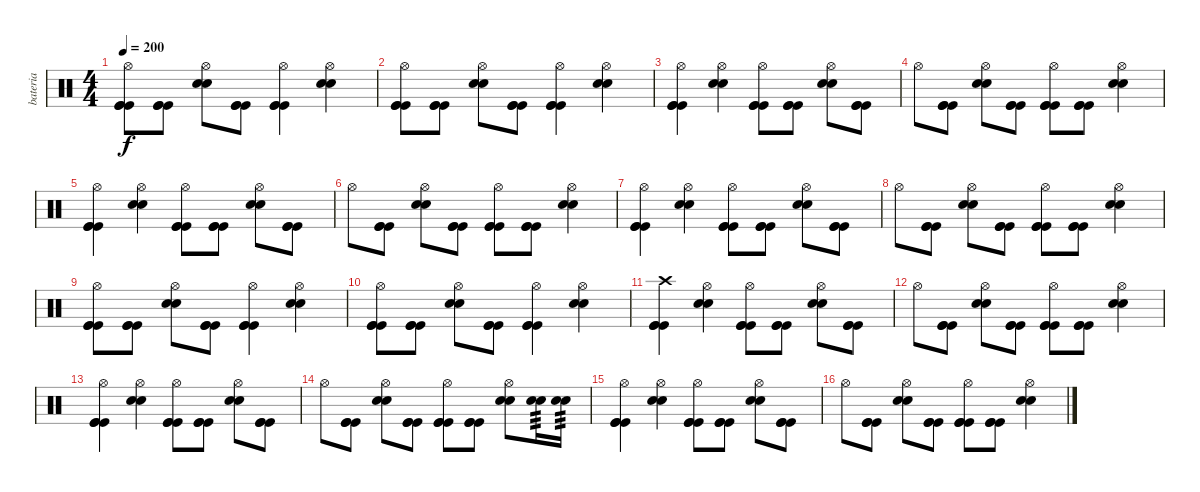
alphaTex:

\track ("bateria" "bateria") {instrument percussion}
\staff {score}
\articulation defaults
\ts (4 4)
\tempo 200
\clef neutral
\ks c
("Hi-Hat (open)" "Kick (hit)" "Kick (hit)" "Kick (hit)").8{dy f} ("Kick (hit)" "Kick (hit)" "Kick (hit)").8 ("Hi-Hat (open)" "Electric Snare (hit)" "Electric Snare (hit)").8 ("Kick (hit)" "Kick (hit)" "Kick (hit)").8 ("Hi-Hat (open)" "Kick (hit)" "Kick (hit)" "Kick (hit)").4 ("Hi-Hat (open)" "Electric Snare (hit)" "Electric Snare (hit)").4 |
("Hi-Hat (open)" "Kick (hit)" "Kick (hit)" "Kick (hit)").8 ("Kick (hit)" "Kick (hit)" "Kick (hit)").8 ("Hi-Hat (open)" "Electric Snare (hit)" "Electric Snare (hit)").8 ("Kick (hit)" "Kick (hit)" "Kick (hit)").8 ("Hi-Hat (open)" "Kick (hit)" "Kick (hit)" "Kick (hit)").4 ("Hi-Hat (open)" "Electric Snare (hit)" "Electric Snare (hit)").4 |
("Hi-Hat (open)" "Kick (hit)" "Kick (hit)" "Kick (hit)").4 ("Hi-Hat (open)" "Electric Snare (hit)" "Electric Snare (hit)").4 ("Hi-Hat (open)" "Kick (hit)" "Kick (hit)" "Kick (hit)").8 ("Kick (hit)" "Kick (hit)" "Kick (hit)").8 ("Hi-Hat (open)" "Electric Snare (hit)" "Electric Snare (hit)").8 ("Kick (hit)" "Kick (hit)" "Kick (hit)").8 |
"Hi-Hat (open)".8 ("Kick (hit)" "Kick (hit)" "Kick (hit)").8 ("Hi-Hat (open)" "Electric Snare (hit)" "Electric Snare (hit)").8 ("Kick (hit)" "Kick (hit)" "Kick (hit)").8 ("Hi-Hat (open)" "Kick (hit)" "Kick (hit)" "Kick (hit)").8 ("Kick (hit)" "Kick (hit)" "Kick (hit)").8 ("Hi-Hat (open)" "Electric Snare (hit)" "Electric Snare (hit)").4 |
("Hi-Hat (open)" "Kick (hit)" "Kick (hit)" "Kick (hit)").4 ("Hi-Hat (open)" "Electric Snare (hit)" "Electric Snare (hit)").4 ("Hi-Hat (open)" "Kick (hit)" "Kick (hit)" "Kick (hit)").8 ("Kick (hit)" "Kick (hit)" "Kick (hit)").8 ("Hi-Hat (open)" "Electric Snare (hit)" "Electric Snare (hit)").8 ("Kick (hit)" "Kick (hit)" "Kick (hit)").8 |
"Hi-Hat (open)".8 ("Kick (hit)" "Kick (hit)" "Kick (hit)").8 ("Hi-Hat (open)" "Electric Snare (hit)" "Electric Snare (hit)").8 ("Kick (hit)" "Kick (hit)" "Kick (hit)").8 ("Hi-Hat (open)" "Kick (hit)" "Kick (hit)" "Kick (hit)").8 ("Kick (hit)" "Kick (hit)" "Kick (hit)").8 ("Hi-Hat (open)" "Electric Snare (hit)" "Electric Snare (hit)").4 |
("Hi-Hat (open)" "Kick (hit)" "Kick (hit)" "Kick (hit)").4 ("Hi-Hat (open)" "Electric Snare (hit)" "Electric Snare (hit)").4 ("Hi-Hat (open)" "Kick (hit)" "Kick (hit)" "Kick (hit)").8 ("Kick (hit)" "Kick (hit)" "Kick (hit)").8 ("Hi-Hat (open)" "Electric Snare (hit)" "Electric Snare (hit)").8 ("Kick (hit)" "Kick (hit)" "Kick (hit)").8 |
"Hi-Hat (open)".8 ("Kick (hit)" "Kick (hit)" "Kick (hit)").8 ("Hi-Hat (open)" "Electric Snare (hit)" "Electric Snare (hit)").8 ("Kick (hit)" "Kick (hit)" "Kick (hit)").8 ("Hi-Hat (open)" "Kick (hit)" "Kick (hit)" "Kick (hit)").8 ("Kick (hit)" "Kick (hit)" "Kick (hit)").8 ("Hi-Hat (open)" "Electric Snare (hit)" "Electric Snare (hit)").4 |
("Hi-Hat (open)" "Kick (hit)" "Kick (hit)" "Kick (hit)").8 ("Kick (hit)" "Kick (hit)" "Kick (hit)").8 ("Hi-Hat (open)" "Electric Snare (hit)" "Electric Snare (hit)").8 ("Kick (hit)" "Kick (hit)" "Kick (hit)").8 ("Hi-Hat (open)" "Kick (hit)" "Kick (hit)" "Kick (hit)").4 ("Hi-Hat (open)" "Electric Snare (hit)" "Electric Snare (hit)").4 |
("Hi-Hat (open)" "Kick (hit)" "Kick (hit)" "Kick (hit)").8 ("Kick (hit)" "Kick (hit)" "Kick (hit)").8 ("Hi-Hat (open)" "Electric Snare (hit)" "Electric Snare (hit)").8 ("Kick (hit)" "Kick (hit)" "Kick (hit)").8 ("Hi-Hat (open)" "Kick (hit)" "Kick (hit)" "Kick (hit)").4 ("Hi-Hat (open)" "Electric Snare (hit)" "Electric Snare (hit)").4 |
("Crash high (hit)" "Kick (hit)" "Kick (hit)" "Kick (hit)").4 ("Hi-Hat (open)" "Electric Snare (hit)" "Electric Snare (hit)").4 ("Hi-Hat (open)" "Kick (hit)" "Kick (hit)" "Kick (hit)").8 ("Kick (hit)" "Kick (hit)" "Kick (hit)").8 ("Hi-Hat (open)" "Electric Snare (hit)" "Electric Snare (hit)").8 ("Kick (hit)" "Kick (hit)" "Kick (hit)").8 |
"Hi-Hat (open)".8 ("Kick (hit)" "Kick (hit)" "Kick (hit)").8 ("Hi-Hat (open)" "Electric Snare (hit)" "Electric Snare (hit)").8 ("Kick (hit)" "Kick (hit)" "Kick (hit)").8 ("Hi-Hat (open)" "Kick (hit)" "Kick (hit)" "Kick (hit)").8 ("Kick (hit)" "Kick (hit)" "Kick (hit)").8 ("Hi-Hat (open)" "Electric Snare (hit)" "Electric Snare (hit)").4 |
("Hi-Hat (open)" "Kick (hit)" "Kick (hit)" "Kick (hit)").4 ("Hi-Hat (open)" "Electric Snare (hit)" "Electric Snare (hit)").4 ("Hi-Hat (open)" "Kick (hit)" "Kick (hit)" "Kick (hit)").8 ("Kick (hit)" "Kick (hit)" "Kick (hit)").8 ("Hi-Hat (open)" "Electric Snare (hit)" "Electric Snare (hit)").8 ("Kick (hit)" "Kick (hit)" "Kick (hit)").8 |
"Hi-Hat (open)".8 ("Kick (hit)" "Kick (hit)" "Kick (hit)").8 ("Hi-Hat (open)" "Electric Snare (hit)" "Electric Snare (hit)").8 ("Kick (hit)" "Kick (hit)" "Kick (hit)").8 ("Hi-Hat (open)" "Kick (hit)" "Kick (hit)" "Kick (hit)").8 ("Kick (hit)" "Kick (hit)" "Kick (hit)").8 ("Hi-Hat (open)" "Electric Snare (hit)" "Electric Snare (hit)").8 ("Electric Snare (hit)" "Electric Snare (hit)").16{tp 3} ("Electric Snare (hit)" "Electric Snare (hit)").16{tp 3} |
("Hi-Hat (open)" "Kick (hit)" "Kick (hit)" "Kick (hit)").4 ("Hi-Hat (open)" "Electric Snare (hit)" "Electric Snare (hit)").4 ("Hi-Hat (open)" "Kick (hit)" "Kick (hit)" "Kick (hit)").8 ("Kick (hit)" "Kick (hit)" "Kick (hit)").8 ("Hi-Hat (open)" "Electric Snare (hit)" "Electric Snare (hit)").8 ("Kick (hit)" "Kick (hit)" "Kick (hit)").8 |
"Hi-Hat (open)".8 ("Kick (hit)" "Kick (hit)" "Kick (hit)").8 ("Hi-Hat (open)" "Electric Snare (hit)" "Electric Snare (hit)").8 ("Kick (hit)" "Kick (hit)" "Kick (hit)").8 ("Hi-Hat (open)" "Kick (hit)" "Kick (hit)" "Kick (hit)").8 ("Kick (hit)" "Kick (hit)" "Kick (hit)").8 ("Hi-Hat (open)" "Electric Snare (hit)" "Electric Snare (hit)").4
